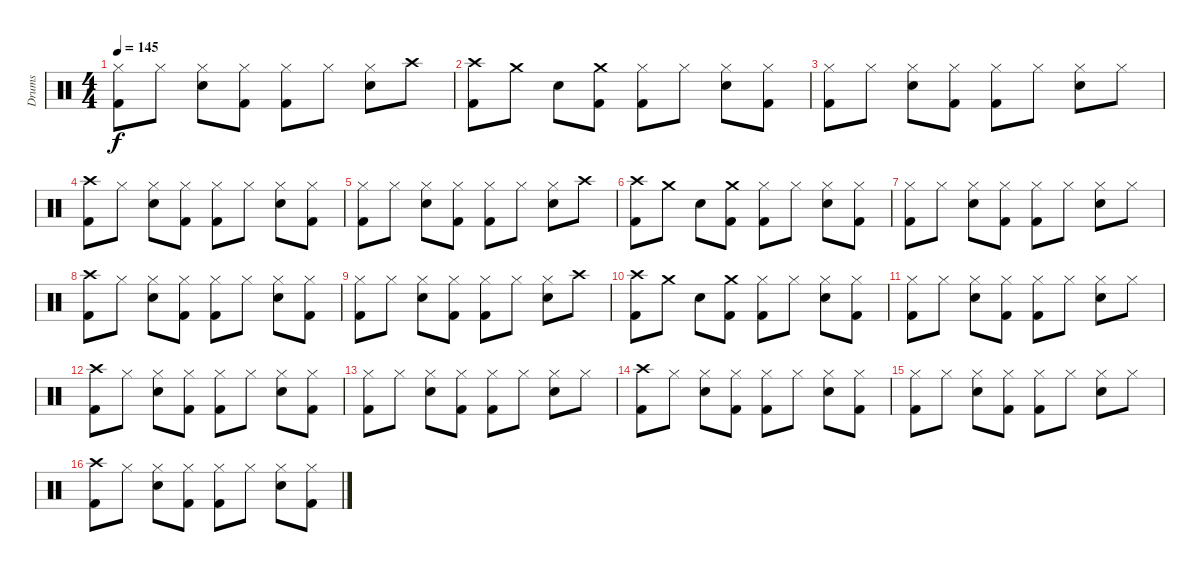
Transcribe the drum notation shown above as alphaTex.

\track ("Drums" "Drums") {instrument percussion}
\staff {score}
\articulation defaults
\ts (4 4)
\tempo 145
\clef neutral
\ks c
("Kick (hit) 2" "Hi-Hat (closed)").8{dy f} "Hi-Hat (closed)".8 ("Electric Snare (hit)" "Hi-Hat (closed)").8 ("Kick (hit) 2" "Hi-Hat (closed)").8 ("Kick (hit) 2" "Hi-Hat (closed)").8 "Hi-Hat (closed)".8 ("Electric Snare (hit)" "Hi-Hat (closed)").8 "Crash high (hit)".8 |
("Kick (hit) 2" "Crash high (hit)").8 "Crash medium (hit)".8 "Electric Snare (hit)".8 ("Kick (hit) 2" "Crash medium (hit)").8 ("Kick (hit) 2" "Hi-Hat (closed)").8 "Hi-Hat (closed)".8 ("Electric Snare (hit)" "Hi-Hat (closed)").8 ("Kick (hit) 2" "Hi-Hat (closed)").8 |
("Kick (hit) 2" "Hi-Hat (closed)").8 "Hi-Hat (closed)".8 ("Electric Snare (hit)" "Hi-Hat (closed)").8 ("Kick (hit) 2" "Hi-Hat (closed)").8 ("Kick (hit) 2" "Hi-Hat (closed)").8 "Hi-Hat (closed)".8 ("Electric Snare (hit)" "Hi-Hat (closed)").8 "Hi-Hat (closed)".8 |
("Kick (hit) 2" "Crash high (hit)").8 "Hi-Hat (closed)".8 ("Electric Snare (hit)" "Hi-Hat (closed)").8 ("Kick (hit) 2" "Hi-Hat (closed)").8 ("Kick (hit) 2" "Hi-Hat (closed)").8 "Hi-Hat (closed)".8 ("Electric Snare (hit)" "Hi-Hat (closed)").8 ("Kick (hit) 2" "Hi-Hat (closed)").8 |
("Kick (hit) 2" "Hi-Hat (closed)").8 "Hi-Hat (closed)".8 ("Electric Snare (hit)" "Hi-Hat (closed)").8 ("Kick (hit) 2" "Hi-Hat (closed)").8 ("Kick (hit) 2" "Hi-Hat (closed)").8 "Hi-Hat (closed)".8 ("Electric Snare (hit)" "Hi-Hat (closed)").8 "Crash high (hit)".8 |
("Kick (hit) 2" "Crash high (hit)").8 "Crash medium (hit)".8 "Electric Snare (hit)".8 ("Kick (hit) 2" "Crash medium (hit)").8 ("Kick (hit) 2" "Hi-Hat (closed)").8 "Hi-Hat (closed)".8 ("Electric Snare (hit)" "Hi-Hat (closed)").8 ("Kick (hit) 2" "Hi-Hat (closed)").8 |
("Kick (hit) 2" "Hi-Hat (closed)").8 "Hi-Hat (closed)".8 ("Electric Snare (hit)" "Hi-Hat (closed)").8 ("Kick (hit) 2" "Hi-Hat (closed)").8 ("Kick (hit) 2" "Hi-Hat (closed)").8 "Hi-Hat (closed)".8 ("Electric Snare (hit)" "Hi-Hat (closed)").8 "Hi-Hat (closed)".8 |
("Kick (hit) 2" "Crash high (hit)").8 "Hi-Hat (closed)".8 ("Electric Snare (hit)" "Hi-Hat (closed)").8 ("Kick (hit) 2" "Hi-Hat (closed)").8 ("Kick (hit) 2" "Hi-Hat (closed)").8 "Hi-Hat (closed)".8 ("Electric Snare (hit)" "Hi-Hat (closed)").8 ("Kick (hit) 2" "Hi-Hat (closed)").8 |
("Kick (hit) 2" "Hi-Hat (closed)").8 "Hi-Hat (closed)".8 ("Electric Snare (hit)" "Hi-Hat (closed)").8 ("Kick (hit) 2" "Hi-Hat (closed)").8 ("Kick (hit) 2" "Hi-Hat (closed)").8 "Hi-Hat (closed)".8 ("Electric Snare (hit)" "Hi-Hat (closed)").8 "Crash high (hit)".8 |
("Kick (hit) 2" "Crash high (hit)").8 "Crash medium (hit)".8 "Electric Snare (hit)".8 ("Kick (hit) 2" "Crash medium (hit)").8 ("Kick (hit) 2" "Hi-Hat (closed)").8 "Hi-Hat (closed)".8 ("Electric Snare (hit)" "Hi-Hat (closed)").8 ("Kick (hit) 2" "Hi-Hat (closed)").8 |
("Kick (hit) 2" "Hi-Hat (closed)").8 "Hi-Hat (closed)".8 ("Electric Snare (hit)" "Hi-Hat (closed)").8 ("Kick (hit) 2" "Hi-Hat (closed)").8 ("Kick (hit) 2" "Hi-Hat (closed)").8 "Hi-Hat (closed)".8 ("Electric Snare (hit)" "Hi-Hat (closed)").8 "Hi-Hat (closed)".8 |
("Kick (hit) 2" "Crash high (hit)").8 "Hi-Hat (closed)".8 ("Electric Snare (hit)" "Hi-Hat (closed)").8 ("Kick (hit) 2" "Hi-Hat (closed)").8 ("Kick (hit) 2" "Hi-Hat (closed)").8 "Hi-Hat (closed)".8 ("Electric Snare (hit)" "Hi-Hat (closed)").8 ("Kick (hit) 2" "Hi-Hat (closed)").8 |
("Kick (hit) 2" "Hi-Hat (closed)").8 "Hi-Hat (closed)".8 ("Electric Snare (hit)" "Hi-Hat (closed)").8 ("Kick (hit) 2" "Hi-Hat (closed)").8 ("Kick (hit) 2" "Hi-Hat (closed)").8 "Hi-Hat (closed)".8 ("Electric Snare (hit)" "Hi-Hat (closed)").8 "Hi-Hat (closed)".8 |
("Kick (hit) 2" "Crash high (hit)").8 "Hi-Hat (closed)".8 ("Electric Snare (hit)" "Hi-Hat (closed)").8 ("Kick (hit) 2" "Hi-Hat (closed)").8 ("Kick (hit) 2" "Hi-Hat (closed)").8 "Hi-Hat (closed)".8 ("Electric Snare (hit)" "Hi-Hat (closed)").8 ("Kick (hit) 2" "Hi-Hat (closed)").8 |
("Kick (hit) 2" "Hi-Hat (closed)").8 "Hi-Hat (closed)".8 ("Electric Snare (hit)" "Hi-Hat (closed)").8 ("Kick (hit) 2" "Hi-Hat (closed)").8 ("Kick (hit) 2" "Hi-Hat (closed)").8 "Hi-Hat (closed)".8 ("Electric Snare (hit)" "Hi-Hat (closed)").8 "Hi-Hat (closed)".8 |
("Kick (hit) 2" "Crash high (hit)").8 "Hi-Hat (closed)".8 ("Electric Snare (hit)" "Hi-Hat (closed)").8 ("Kick (hit) 2" "Hi-Hat (closed)").8 ("Kick (hit) 2" "Hi-Hat (closed)").8 "Hi-Hat (closed)".8 ("Electric Snare (hit)" "Hi-Hat (closed)").8 ("Kick (hit) 2" "Hi-Hat (closed)").8
